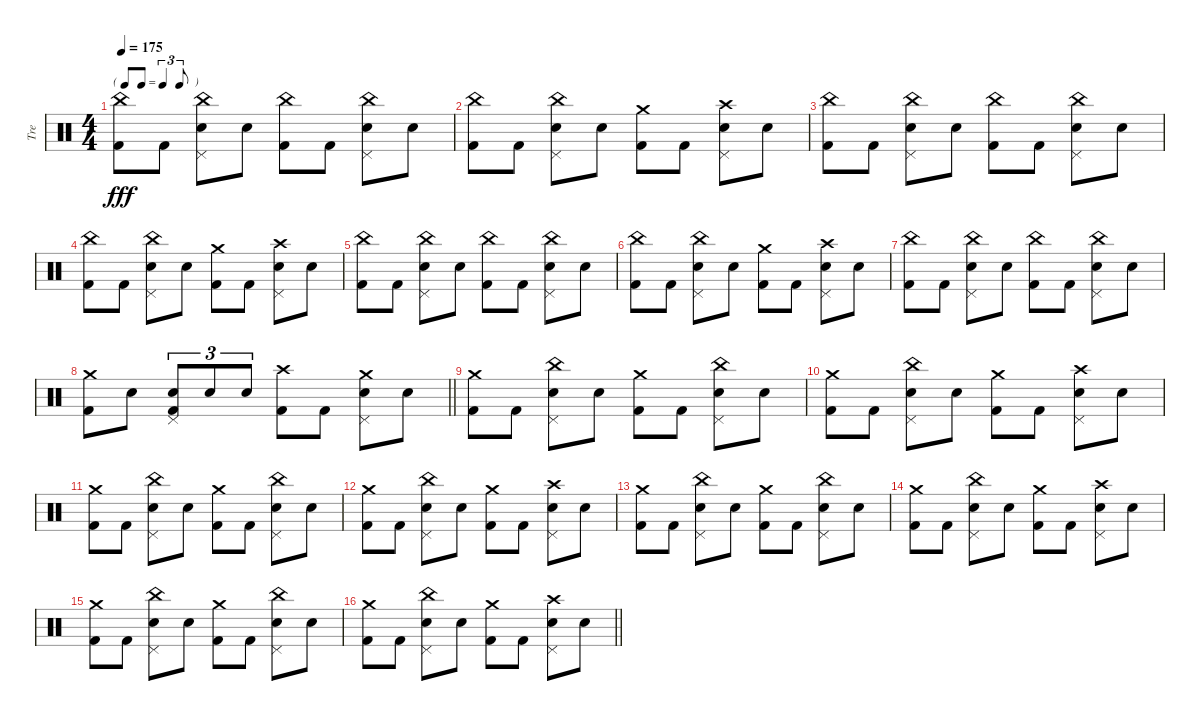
\track ("Tre" "Tre") {instrument percussion}
\staff {score}
\articulation defaults
\ts (4 4)
\tf triplet8th
\tempo 175
\clef neutral
\ks c
("China (hit)" "Kick (hit) 2").8{dy fff} "Kick (hit) 2".8 ("China (hit)" "Snare (hit) 2" "Pedal Hi-Hat (hit)").8 "Snare (hit) 2".8 ("China (hit)" "Kick (hit) 2").8 "Kick (hit) 2".8 ("China (hit)" "Snare (hit) 2" "Pedal Hi-Hat (hit)").8 "Snare (hit) 2".8 |
("China (hit)" "Kick (hit) 2").8 "Kick (hit) 2".8 ("China (hit)" "Snare (hit) 2" "Pedal Hi-Hat (hit)").8 "Snare (hit) 2".8 ("Crash medium (hit)" "Kick (hit) 2").8 "Kick (hit) 2".8 ("Crash high (hit)" "Snare (hit) 2" "Pedal Hi-Hat (hit)").8 "Snare (hit) 2".8 |
("China (hit)" "Kick (hit) 2").8 "Kick (hit) 2".8 ("China (hit)" "Snare (hit) 2" "Pedal Hi-Hat (hit)").8 "Snare (hit) 2".8 ("China (hit)" "Kick (hit) 2").8 "Kick (hit) 2".8 ("China (hit)" "Snare (hit) 2" "Pedal Hi-Hat (hit)").8 "Snare (hit) 2".8 |
("China (hit)" "Kick (hit) 2").8 "Kick (hit) 2".8 ("China (hit)" "Snare (hit) 2" "Pedal Hi-Hat (hit)").8 "Snare (hit) 2".8 ("Crash medium (hit)" "Kick (hit) 2").8 "Kick (hit) 2".8 ("Crash high (hit)" "Snare (hit) 2" "Pedal Hi-Hat (hit)").8 "Snare (hit) 2".8 |
("China (hit)" "Kick (hit) 2").8 "Kick (hit) 2".8 ("China (hit)" "Snare (hit) 2" "Pedal Hi-Hat (hit)").8 "Snare (hit) 2".8 ("China (hit)" "Kick (hit) 2").8 "Kick (hit) 2".8 ("China (hit)" "Snare (hit) 2" "Pedal Hi-Hat (hit)").8 "Snare (hit) 2".8 |
("China (hit)" "Kick (hit) 2").8 "Kick (hit) 2".8 ("China (hit)" "Snare (hit) 2" "Pedal Hi-Hat (hit)").8 "Snare (hit) 2".8 ("Crash medium (hit)" "Kick (hit) 2").8 "Kick (hit) 2".8 ("Crash high (hit)" "Snare (hit) 2" "Pedal Hi-Hat (hit)").8 "Snare (hit) 2".8 |
("China (hit)" "Kick (hit) 2").8 "Kick (hit) 2".8 ("China (hit)" "Snare (hit) 2" "Pedal Hi-Hat (hit)").8 "Snare (hit) 2".8 ("China (hit)" "Kick (hit) 2").8 "Kick (hit) 2".8 ("China (hit)" "Snare (hit) 2" "Pedal Hi-Hat (hit)").8 "Snare (hit) 2".8 |
\barLineRight lightlight
("Crash medium (hit)" "Kick (hit) 2").8 "Snare (hit) 2".8 ("Snare (hit) 2" "Pedal Hi-Hat (hit)" "Kick (hit) 2").8{tu (3 2)} "Snare (hit) 2".8{tu (3 2)} "Snare (hit) 2".8{tu (3 2)} ("Crash high (hit)" "Kick (hit) 2").8 "Kick (hit) 2".8 ("Crash medium (hit)" "Snare (hit) 2" "Pedal Hi-Hat (hit)").8 "Snare (hit) 2".8 |
("Crash medium (hit)" "Kick (hit) 2").8 "Kick (hit) 2".8 ("China (hit)" "Snare (hit) 2" "Pedal Hi-Hat (hit)").8 "Snare (hit) 2".8 ("Crash medium (hit)" "Kick (hit) 2").8 "Kick (hit) 2".8 ("China (hit)" "Snare (hit) 2" "Pedal Hi-Hat (hit)").8 "Snare (hit) 2".8 |
("Crash medium (hit)" "Kick (hit) 2").8 "Kick (hit) 2".8 ("China (hit)" "Snare (hit) 2" "Pedal Hi-Hat (hit)").8 "Snare (hit) 2".8 ("Crash medium (hit)" "Kick (hit) 2").8 "Kick (hit) 2".8 ("Crash high (hit)" "Snare (hit) 2" "Pedal Hi-Hat (hit)").8 "Snare (hit) 2".8 |
("Crash medium (hit)" "Kick (hit) 2").8 "Kick (hit) 2".8 ("China (hit)" "Snare (hit) 2" "Pedal Hi-Hat (hit)").8 "Snare (hit) 2".8 ("Crash medium (hit)" "Kick (hit) 2").8 "Kick (hit) 2".8 ("China (hit)" "Snare (hit) 2" "Pedal Hi-Hat (hit)").8 "Snare (hit) 2".8 |
("Crash medium (hit)" "Kick (hit) 2").8 "Kick (hit) 2".8 ("China (hit)" "Snare (hit) 2" "Pedal Hi-Hat (hit)").8 "Snare (hit) 2".8 ("Crash medium (hit)" "Kick (hit) 2").8 "Kick (hit) 2".8 ("Crash high (hit)" "Snare (hit) 2" "Pedal Hi-Hat (hit)").8 "Snare (hit) 2".8 |
("Crash medium (hit)" "Kick (hit) 2").8 "Kick (hit) 2".8 ("China (hit)" "Snare (hit) 2" "Pedal Hi-Hat (hit)").8 "Snare (hit) 2".8 ("Crash medium (hit)" "Kick (hit) 2").8 "Kick (hit) 2".8 ("China (hit)" "Snare (hit) 2" "Pedal Hi-Hat (hit)").8 "Snare (hit) 2".8 |
("Crash medium (hit)" "Kick (hit) 2").8 "Kick (hit) 2".8 ("China (hit)" "Snare (hit) 2" "Pedal Hi-Hat (hit)").8 "Snare (hit) 2".8 ("Crash medium (hit)" "Kick (hit) 2").8 "Kick (hit) 2".8 ("Crash high (hit)" "Snare (hit) 2" "Pedal Hi-Hat (hit)").8 "Snare (hit) 2".8 |
("Crash medium (hit)" "Kick (hit) 2").8 "Kick (hit) 2".8 ("China (hit)" "Snare (hit) 2" "Pedal Hi-Hat (hit)").8 "Snare (hit) 2".8 ("Crash medium (hit)" "Kick (hit) 2").8 "Kick (hit) 2".8 ("China (hit)" "Snare (hit) 2" "Pedal Hi-Hat (hit)").8 "Snare (hit) 2".8 |
\barLineRight lightlight
("Crash medium (hit)" "Kick (hit) 2").8 "Kick (hit) 2".8 ("China (hit)" "Snare (hit) 2" "Pedal Hi-Hat (hit)").8 "Snare (hit) 2".8 ("Crash medium (hit)" "Kick (hit) 2").8 "Kick (hit) 2".8 ("Crash high (hit)" "Snare (hit) 2" "Pedal Hi-Hat (hit)").8 "Snare (hit) 2".8
